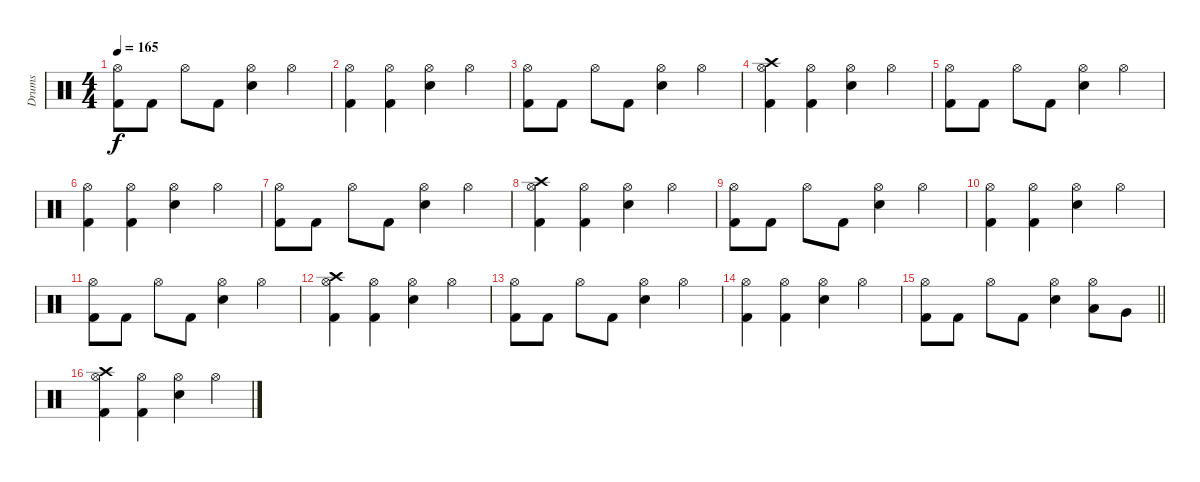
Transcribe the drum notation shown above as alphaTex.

\track ("Drums" "Drums") {instrument percussion}
\staff {score}
\articulation defaults
\ts (4 4)
\tempo 165
\clef neutral
\ks c
("Hi-Hat (open)" "Kick (hit) 2").8{dy f} "Kick (hit) 2".8 "Hi-Hat (open)".8 "Kick (hit) 2".8 ("Hi-Hat (open)" "Snare (hit) 2").4 "Hi-Hat (open)".4 |
("Hi-Hat (open)" "Kick (hit) 2").4 ("Hi-Hat (open)" "Kick (hit) 2").4 ("Hi-Hat (open)" "Snare (hit) 2").4 "Hi-Hat (open)".4 |
("Hi-Hat (open)" "Kick (hit) 2").8 "Kick (hit) 2".8 "Hi-Hat (open)".8 "Kick (hit) 2".8 ("Hi-Hat (open)" "Snare (hit) 2").4 "Hi-Hat (open)".4 |
("Crash high (hit)" "Hi-Hat (open)" "Kick (hit) 2").4 ("Hi-Hat (open)" "Kick (hit) 2").4 ("Hi-Hat (open)" "Snare (hit) 2").4 "Hi-Hat (open)".4 |
("Hi-Hat (open)" "Kick (hit) 2").8 "Kick (hit) 2".8 "Hi-Hat (open)".8 "Kick (hit) 2".8 ("Hi-Hat (open)" "Snare (hit) 2").4 "Hi-Hat (open)".4 |
("Hi-Hat (open)" "Kick (hit) 2").4 ("Hi-Hat (open)" "Kick (hit) 2").4 ("Hi-Hat (open)" "Snare (hit) 2").4 "Hi-Hat (open)".4 |
("Hi-Hat (open)" "Kick (hit) 2").8 "Kick (hit) 2".8 "Hi-Hat (open)".8 "Kick (hit) 2".8 ("Hi-Hat (open)" "Snare (hit) 2").4 "Hi-Hat (open)".4 |
("Crash high (hit)" "Hi-Hat (open)" "Kick (hit) 2").4 ("Hi-Hat (open)" "Kick (hit) 2").4 ("Hi-Hat (open)" "Snare (hit) 2").4 "Hi-Hat (open)".4 |
("Hi-Hat (open)" "Kick (hit) 2").8 "Kick (hit) 2".8 "Hi-Hat (open)".8 "Kick (hit) 2".8 ("Hi-Hat (open)" "Snare (hit) 2").4 "Hi-Hat (open)".4 |
("Hi-Hat (open)" "Kick (hit) 2").4 ("Hi-Hat (open)" "Kick (hit) 2").4 ("Hi-Hat (open)" "Snare (hit) 2").4 "Hi-Hat (open)".4 |
("Hi-Hat (open)" "Kick (hit) 2").8 "Kick (hit) 2".8 "Hi-Hat (open)".8 "Kick (hit) 2".8 ("Hi-Hat (open)" "Snare (hit) 2").4 "Hi-Hat (open)".4 |
("Crash high (hit)" "Hi-Hat (open)" "Kick (hit) 2").4 ("Hi-Hat (open)" "Kick (hit) 2").4 ("Hi-Hat (open)" "Snare (hit) 2").4 "Hi-Hat (open)".4 |
("Hi-Hat (open)" "Kick (hit) 2").8 "Kick (hit) 2".8 "Hi-Hat (open)".8 "Kick (hit) 2".8 ("Hi-Hat (open)" "Snare (hit) 2").4 "Hi-Hat (open)".4 |
("Hi-Hat (open)" "Kick (hit) 2").4 ("Hi-Hat (open)" "Kick (hit) 2").4 ("Hi-Hat (open)" "Snare (hit) 2").4 "Hi-Hat (open)".4 |
\barLineRight lightlight
("Hi-Hat (open)" "Kick (hit) 2").8 "Kick (hit) 2".8 "Hi-Hat (open)".8 "Kick (hit) 2".8 ("Hi-Hat (open)" "Snare (hit) 2").4 ("Hi-Hat (open)" "Low Tom (hit)").8 "Very Low Tom (hit)".8 |
("Crash high (hit)" "Hi-Hat (open)" "Kick (hit) 2").4 ("Hi-Hat (open)" "Kick (hit) 2").4 ("Hi-Hat (open)" "Snare (hit) 2").4 "Hi-Hat (open)".4
